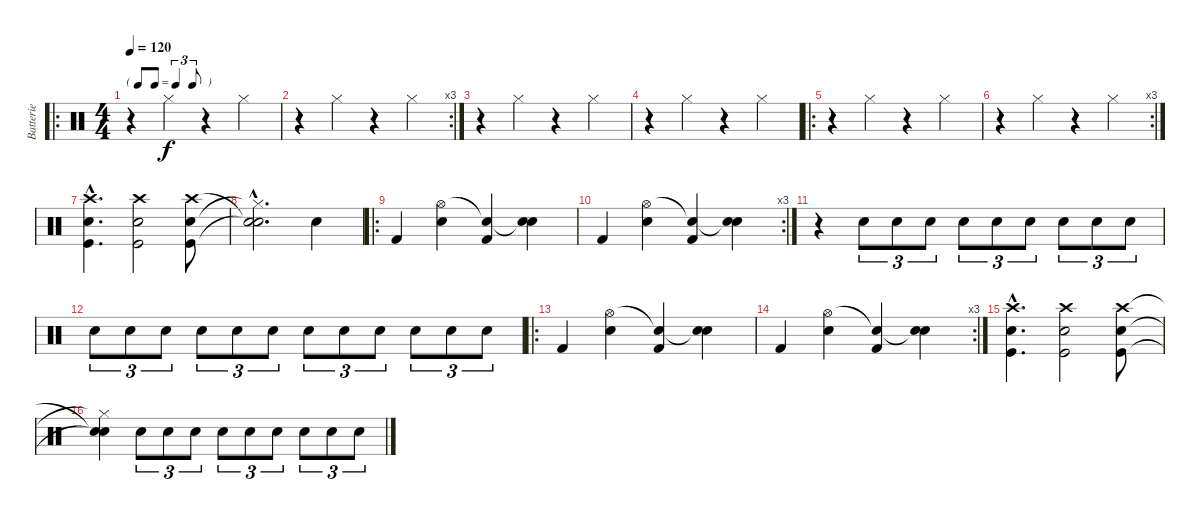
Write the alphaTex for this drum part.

\track ("Batterie" "Batterie") {instrument percussion}
\staff {score}
\articulation defaults
\ro
\ts (4 4)
\tf triplet8th
\tempo 120
\clef neutral
\ks c
r.4{dy f} "Hi-Hat (closed)".4 r.4 "Hi-Hat (closed)".4 |
\rc 3
r.4 "Hi-Hat (closed)".4 r.4 "Hi-Hat (closed)".4 |
r.4 "Hi-Hat (closed)".4 r.4 "Hi-Hat (closed)".4 |
r.4 "Hi-Hat (closed)".4 r.4 "Hi-Hat (closed)".4 |
\ro
r.4 "Hi-Hat (closed)".4 r.4 "Hi-Hat (closed)".4 |
\rc 3
r.4 "Hi-Hat (closed)".4 r.4 "Hi-Hat (closed)".4 |
("Crash high (hit)"{hac} "Snare (hit) 2"{hac} "Kick (hit)"{hac}).4{d} ("Crash high (hit)" "Snare (hit) 2" "Kick (hit)").2 ("Crash high (hit)" "Snare (hit) 2" "Kick (hit)").8 |
("Snare (hit)"{hac t} "Hi-Hat (closed)"{hac t} "Snare (hit)"{hac t}).2{d} "Snare (hit) 2".4 |
\ro "Kick (hit) 2".4
("Hi-Hat (open)" "Snare (hit) 2").4 ("Snare (hit)"{t} "Kick (hit) 2").4 ("Snare (hit)"{t} "Snare (hit) 2").4 |
\rc 3 "Kick (hit) 2".4
("Hi-Hat (open)" "Snare (hit) 2").4 ("Snare (hit)"{t} "Kick (hit) 2").4 ("Snare (hit)"{t} "Snare (hit) 2").4 |
r.4{volume 3} "Snare (hit) 2".8{tu (3 2) volume 13} "Snare (hit) 2".8{tu (3 2)} "Snare (hit) 2".8{tu (3 2)} "Snare (hit) 2".8{tu (3 2)} "Snare (hit) 2".8{tu (3 2)} "Snare (hit) 2".8{tu (3 2)} "Snare (hit) 2".8{tu (3 2)} "Snare (hit) 2".8{tu (3 2)} "Snare (hit) 2".8{tu (3 2)} |
"Snare (hit) 2".8{tu (3 2)} "Snare (hit) 2".8{tu (3 2)} "Snare (hit) 2".8{tu (3 2)} "Snare (hit) 2".8{tu (3 2)} "Snare (hit) 2".8{tu (3 2)} "Snare (hit) 2".8{tu (3 2)} "Snare (hit) 2".8{tu (3 2)} "Snare (hit) 2".8{tu (3 2)} "Snare (hit) 2".8{tu (3 2)} "Snare (hit) 2".8{tu (3 2)} "Snare (hit) 2".8{tu (3 2)} "Snare (hit) 2".8{tu (3 2)} |
\ro "Kick (hit) 2".4
("Hi-Hat (open)" "Snare (hit) 2").4 ("Snare (hit)"{t} "Kick (hit) 2").4 ("Snare (hit)"{t} "Snare (hit) 2").4 |
\rc 3 "Kick (hit) 2".4
("Hi-Hat (open)" "Snare (hit) 2").4 ("Snare (hit)"{t} "Kick (hit) 2").4 ("Snare (hit)"{t} "Snare (hit) 2").4 |
("Crash high (hit)"{hac} "Snare (hit) 2"{hac} "Kick (hit)"{hac}).4{d} ("Crash high (hit)" "Snare (hit) 2" "Kick (hit)").2 ("Crash high (hit)" "Snare (hit) 2" "Kick (hit)").8 |
("Snare (hit)"{t} "Hi-Hat (closed)"{t} "Snare (hit)"{t}).4 "Snare (hit) 2".8{tu (3 2)} "Snare (hit) 2".8{tu (3 2)} "Snare (hit) 2".8{tu (3 2)} "Snare (hit) 2".8{tu (3 2)} "Snare (hit) 2".8{tu (3 2)} "Snare (hit) 2".8{tu (3 2)} "Snare (hit) 2".8{tu (3 2)} "Snare (hit) 2".8{tu (3 2)} "Snare (hit) 2".8{tu (3 2)}
